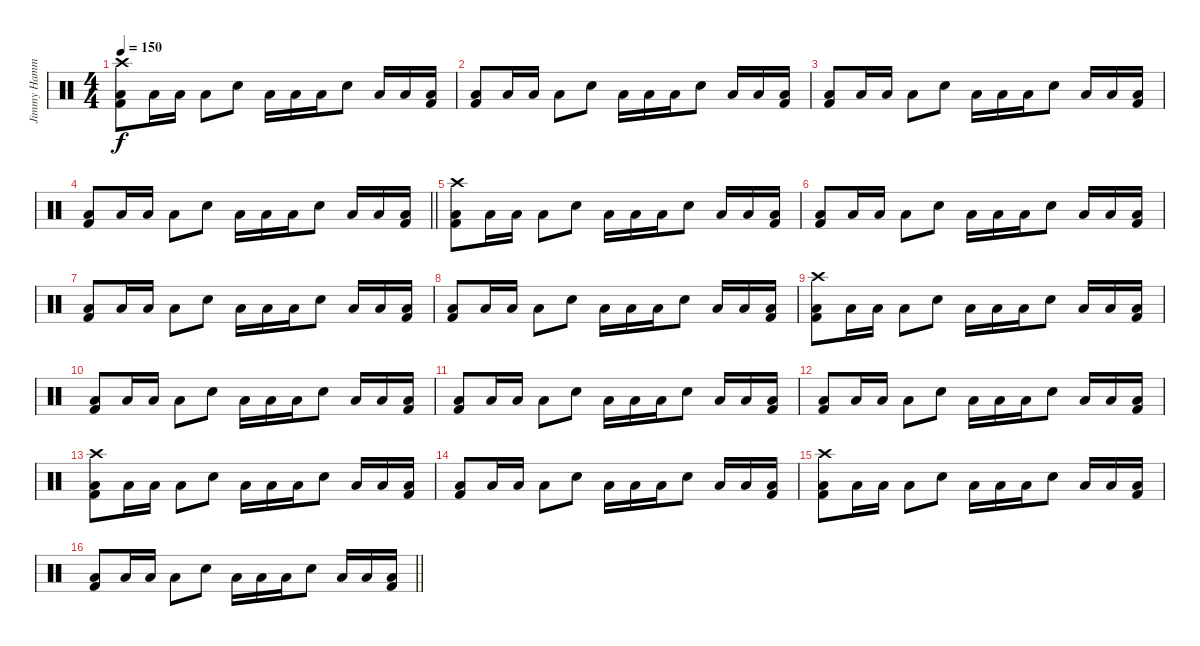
\track ("Jimmy Hammer" "Jimmy Hamm") {instrument percussion}
\staff {score}
\articulation defaults
\ts (4 4)
\tempo 150
\clef neutral
\ks c
("Crash high (hit)" "Low Floor Tom (hit)" "Kick (hit) 2").8{dy f} "Low Floor Tom (hit)".16 "Low Floor Tom (hit)".16 "Low Floor Tom (hit)".8 "Electric Snare (hit)".8 "Low Floor Tom (hit)".16 "Low Floor Tom (hit)".16 "Low Floor Tom (hit)".16 "Electric Snare (hit)".8 "Low Floor Tom (hit)".16 "Low Floor Tom (hit)".16 ("Low Floor Tom (hit)" "Kick (hit) 2").16 |
("Low Floor Tom (hit)" "Kick (hit) 2").8 "Low Floor Tom (hit)".16 "Low Floor Tom (hit)".16 "Low Floor Tom (hit)".8 "Electric Snare (hit)".8 "Low Floor Tom (hit)".16 "Low Floor Tom (hit)".16 "Low Floor Tom (hit)".16 "Electric Snare (hit)".8 "Low Floor Tom (hit)".16 "Low Floor Tom (hit)".16 ("Low Floor Tom (hit)" "Kick (hit) 2").16 |
("Low Floor Tom (hit)" "Kick (hit) 2").8 "Low Floor Tom (hit)".16 "Low Floor Tom (hit)".16 "Low Floor Tom (hit)".8 "Electric Snare (hit)".8 "Low Floor Tom (hit)".16 "Low Floor Tom (hit)".16 "Low Floor Tom (hit)".16 "Electric Snare (hit)".8 "Low Floor Tom (hit)".16 "Low Floor Tom (hit)".16 ("Low Floor Tom (hit)" "Kick (hit) 2").16 |
\barLineRight lightlight
("Low Floor Tom (hit)" "Kick (hit) 2").8 "Low Floor Tom (hit)".16 "Low Floor Tom (hit)".16 "Low Floor Tom (hit)".8 "Electric Snare (hit)".8 "Low Floor Tom (hit)".16 "Low Floor Tom (hit)".16 "Low Floor Tom (hit)".16 "Electric Snare (hit)".8 "Low Floor Tom (hit)".16 "Low Floor Tom (hit)".16 ("Low Floor Tom (hit)" "Kick (hit) 2").16 |
\section ("" "")
("Crash high (hit)" "Low Floor Tom (hit)" "Kick (hit) 2").8 "Low Floor Tom (hit)".16 "Low Floor Tom (hit)".16 "Low Floor Tom (hit)".8 "Electric Snare (hit)".8 "Low Floor Tom (hit)".16 "Low Floor Tom (hit)".16 "Low Floor Tom (hit)".16 "Electric Snare (hit)".8 "Low Floor Tom (hit)".16 "Low Floor Tom (hit)".16 ("Low Floor Tom (hit)" "Kick (hit) 2").16 |
("Low Floor Tom (hit)" "Kick (hit) 2").8 "Low Floor Tom (hit)".16 "Low Floor Tom (hit)".16 "Low Floor Tom (hit)".8 "Electric Snare (hit)".8 "Low Floor Tom (hit)".16 "Low Floor Tom (hit)".16 "Low Floor Tom (hit)".16 "Electric Snare (hit)".8 "Low Floor Tom (hit)".16 "Low Floor Tom (hit)".16 ("Low Floor Tom (hit)" "Kick (hit) 2").16 |
("Low Floor Tom (hit)" "Kick (hit) 2").8 "Low Floor Tom (hit)".16 "Low Floor Tom (hit)".16 "Low Floor Tom (hit)".8 "Electric Snare (hit)".8 "Low Floor Tom (hit)".16 "Low Floor Tom (hit)".16 "Low Floor Tom (hit)".16 "Electric Snare (hit)".8 "Low Floor Tom (hit)".16 "Low Floor Tom (hit)".16 ("Low Floor Tom (hit)" "Kick (hit) 2").16 |
("Low Floor Tom (hit)" "Kick (hit) 2").8 "Low Floor Tom (hit)".16 "Low Floor Tom (hit)".16 "Low Floor Tom (hit)".8 "Electric Snare (hit)".8 "Low Floor Tom (hit)".16 "Low Floor Tom (hit)".16 "Low Floor Tom (hit)".16 "Electric Snare (hit)".8 "Low Floor Tom (hit)".16 "Low Floor Tom (hit)".16 ("Low Floor Tom (hit)" "Kick (hit) 2").16 |
("Crash high (hit)" "Low Floor Tom (hit)" "Kick (hit) 2").8 "Low Floor Tom (hit)".16 "Low Floor Tom (hit)".16 "Low Floor Tom (hit)".8 "Electric Snare (hit)".8 "Low Floor Tom (hit)".16 "Low Floor Tom (hit)".16 "Low Floor Tom (hit)".16 "Electric Snare (hit)".8 "Low Floor Tom (hit)".16 "Low Floor Tom (hit)".16 ("Low Floor Tom (hit)" "Kick (hit) 2").16 |
("Low Floor Tom (hit)" "Kick (hit) 2").8 "Low Floor Tom (hit)".16 "Low Floor Tom (hit)".16 "Low Floor Tom (hit)".8 "Electric Snare (hit)".8 "Low Floor Tom (hit)".16 "Low Floor Tom (hit)".16 "Low Floor Tom (hit)".16 "Electric Snare (hit)".8 "Low Floor Tom (hit)".16 "Low Floor Tom (hit)".16 ("Low Floor Tom (hit)" "Kick (hit) 2").16 |
("Low Floor Tom (hit)" "Kick (hit) 2").8 "Low Floor Tom (hit)".16 "Low Floor Tom (hit)".16 "Low Floor Tom (hit)".8 "Electric Snare (hit)".8 "Low Floor Tom (hit)".16 "Low Floor Tom (hit)".16 "Low Floor Tom (hit)".16 "Electric Snare (hit)".8 "Low Floor Tom (hit)".16 "Low Floor Tom (hit)".16 ("Low Floor Tom (hit)" "Kick (hit) 2").16 |
("Low Floor Tom (hit)" "Kick (hit) 2").8 "Low Floor Tom (hit)".16 "Low Floor Tom (hit)".16 "Low Floor Tom (hit)".8 "Electric Snare (hit)".8 "Low Floor Tom (hit)".16 "Low Floor Tom (hit)".16 "Low Floor Tom (hit)".16 "Electric Snare (hit)".8 "Low Floor Tom (hit)".16 "Low Floor Tom (hit)".16 ("Low Floor Tom (hit)" "Kick (hit) 2").16 |
("Crash high (hit)" "Low Floor Tom (hit)" "Kick (hit) 2").8 "Low Floor Tom (hit)".16 "Low Floor Tom (hit)".16 "Low Floor Tom (hit)".8 "Electric Snare (hit)".8 "Low Floor Tom (hit)".16 "Low Floor Tom (hit)".16 "Low Floor Tom (hit)".16 "Electric Snare (hit)".8 "Low Floor Tom (hit)".16 "Low Floor Tom (hit)".16 ("Low Floor Tom (hit)" "Kick (hit) 2").16 |
("Low Floor Tom (hit)" "Kick (hit) 2").8 "Low Floor Tom (hit)".16 "Low Floor Tom (hit)".16 "Low Floor Tom (hit)".8 "Electric Snare (hit)".8 "Low Floor Tom (hit)".16 "Low Floor Tom (hit)".16 "Low Floor Tom (hit)".16 "Electric Snare (hit)".8 "Low Floor Tom (hit)".16 "Low Floor Tom (hit)".16 ("Low Floor Tom (hit)" "Kick (hit) 2").16 |
("Crash high (hit)" "Low Floor Tom (hit)" "Kick (hit) 2").8 "Low Floor Tom (hit)".16 "Low Floor Tom (hit)".16 "Low Floor Tom (hit)".8 "Electric Snare (hit)".8 "Low Floor Tom (hit)".16 "Low Floor Tom (hit)".16 "Low Floor Tom (hit)".16 "Electric Snare (hit)".8 "Low Floor Tom (hit)".16 "Low Floor Tom (hit)".16 ("Low Floor Tom (hit)" "Kick (hit) 2").16 |
\barLineRight lightlight
("Low Floor Tom (hit)" "Kick (hit) 2").8 "Low Floor Tom (hit)".16 "Low Floor Tom (hit)".16 "Low Floor Tom (hit)".8 "Electric Snare (hit)".8 "Low Floor Tom (hit)".16 "Low Floor Tom (hit)".16 "Low Floor Tom (hit)".16 "Electric Snare (hit)".8 "Low Floor Tom (hit)".16 "Low Floor Tom (hit)".16 ("Low Floor Tom (hit)" "Kick (hit) 2").16
